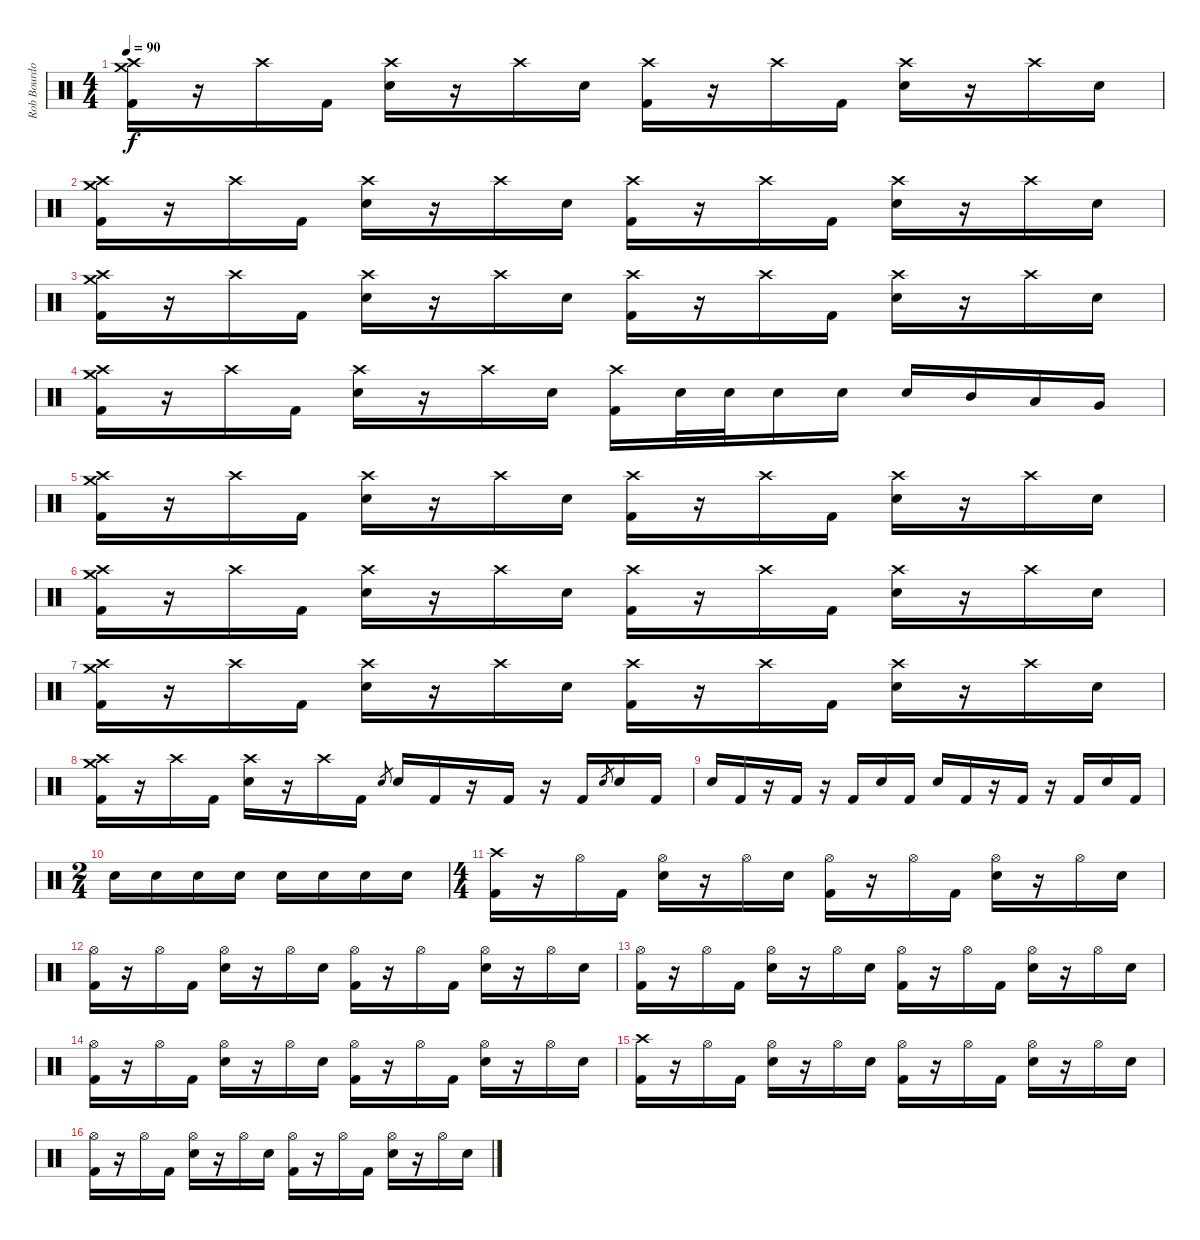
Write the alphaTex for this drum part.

\track ("Rob Bourdon - Drums" "Rob Bourdo") {instrument percussion}
\staff {score}
\articulation defaults
\ts (4 4)
\tempo 90
\clef neutral
\ks c
("Crash high (hit)" "Crash medium (hit)" "Kick (hit) 2").16{dy f} r.16 "Crash high (hit)".16 "Kick (hit) 2".16 ("Crash high (hit)" "Electric Snare (hit)").16 r.16 "Crash high (hit)".16 "Electric Snare (hit)".16 ("Crash high (hit)" "Kick (hit) 2").16 r.16 "Crash high (hit)".16 "Kick (hit) 2".16 ("Crash high (hit)" "Electric Snare (hit)").16 r.16 "Crash high (hit)".16 "Electric Snare (hit)".16 |
("Crash high (hit)" "Crash medium (hit)" "Kick (hit) 2").16 r.16 "Crash high (hit)".16 "Kick (hit) 2".16 ("Crash high (hit)" "Electric Snare (hit)").16 r.16 "Crash high (hit)".16 "Electric Snare (hit)".16 ("Crash high (hit)" "Kick (hit) 2").16 r.16 "Crash high (hit)".16 "Kick (hit) 2".16 ("Crash high (hit)" "Electric Snare (hit)").16 r.16 "Crash high (hit)".16 "Electric Snare (hit)".16 |
("Crash high (hit)" "Crash medium (hit)" "Kick (hit) 2").16 r.16 "Crash high (hit)".16 "Kick (hit) 2".16 ("Crash high (hit)" "Electric Snare (hit)").16 r.16 "Crash high (hit)".16 "Electric Snare (hit)".16 ("Crash high (hit)" "Kick (hit) 2").16 r.16 "Crash high (hit)".16 "Kick (hit) 2".16 ("Crash high (hit)" "Electric Snare (hit)").16 r.16 "Crash high (hit)".16 "Electric Snare (hit)".16 |
("Crash high (hit)" "Crash medium (hit)" "Kick (hit) 2").16 r.16 "Crash high (hit)".16 "Kick (hit) 2".16 ("Crash high (hit)" "Electric Snare (hit)").16 r.16 "Crash high (hit)".16 "Electric Snare (hit)".16 ("Crash high (hit)" "Kick (hit) 2").16 "Electric Snare (hit)".32 "Electric Snare (hit)".32 "Electric Snare (hit)".16 "Electric Snare (hit)".16 "Electric Snare (hit)".16 "Mid Tom (hit)".16 "Low Tom (hit)".16 "Very Low Tom (hit)".16 |
("Crash high (hit)" "Crash medium (hit)" "Kick (hit) 2").16 r.16 "Crash high (hit)".16 "Kick (hit) 2".16 ("Crash high (hit)" "Electric Snare (hit)").16 r.16 "Crash high (hit)".16 "Electric Snare (hit)".16 ("Crash high (hit)" "Kick (hit) 2").16 r.16 "Crash high (hit)".16 "Kick (hit) 2".16 ("Crash high (hit)" "Electric Snare (hit)").16 r.16 "Crash high (hit)".16 "Electric Snare (hit)".16 |
("Crash high (hit)" "Crash medium (hit)" "Kick (hit) 2").16 r.16 "Crash high (hit)".16 "Kick (hit) 2".16 ("Crash high (hit)" "Electric Snare (hit)").16 r.16 "Crash high (hit)".16 "Electric Snare (hit)".16 ("Crash high (hit)" "Kick (hit) 2").16 r.16 "Crash high (hit)".16 "Kick (hit) 2".16 ("Crash high (hit)" "Electric Snare (hit)").16 r.16 "Crash high (hit)".16 "Electric Snare (hit)".16 |
("Crash high (hit)" "Crash medium (hit)" "Kick (hit) 2").16 r.16 "Crash high (hit)".16 "Kick (hit) 2".16 ("Crash high (hit)" "Electric Snare (hit)").16 r.16 "Crash high (hit)".16 "Electric Snare (hit)".16 ("Crash high (hit)" "Kick (hit) 2").16 r.16 "Crash high (hit)".16 "Kick (hit) 2".16 ("Crash high (hit)" "Electric Snare (hit)").16 r.16 "Crash high (hit)".16 "Electric Snare (hit)".16 |
("Crash high (hit)" "Crash medium (hit)" "Kick (hit) 2").16 r.16 "Crash high (hit)".16 "Kick (hit) 2".16 ("Crash high (hit)" "Electric Snare (hit)").16 r.16 "Crash high (hit)".16 "Kick (hit) 2".16 "Electric Snare (hit)".8{gr} "Electric Snare (hit)".16 "Kick (hit) 2".16 r.16 "Kick (hit) 2".16 r.16 "Kick (hit) 2".16 "Electric Snare (hit)".8{gr} "Electric Snare (hit)".16 "Kick (hit) 2".16 |
"Electric Snare (hit)".16 "Kick (hit) 2".16 r.16 "Kick (hit) 2".16 r.16 "Kick (hit) 2".16 "Electric Snare (hit)".16 "Kick (hit) 2".16 "Electric Snare (hit)".16 "Kick (hit) 2".16 r.16 "Kick (hit) 2".16 r.16 "Kick (hit) 2".16 "Electric Snare (hit)".16 "Kick (hit) 2".16 |
\ts (2 4)
"Electric Snare (hit)".16 "Electric Snare (hit)".16 "Electric Snare (hit)".16 "Electric Snare (hit)".16 "Electric Snare (hit)".16 "Electric Snare (hit)".16 "Electric Snare (hit)".16 "Electric Snare (hit)".16 |
\ts (4 4)
("Crash high (hit)" "Kick (hit) 2").16 r.16 "Hi-Hat (open)".16 "Kick (hit) 2".16 ("Hi-Hat (open)" "Electric Snare (hit)").16 r.16 "Hi-Hat (open)".16 "Electric Snare (hit)".16 ("Hi-Hat (open)" "Kick (hit) 2").16 r.16 "Hi-Hat (open)".16 "Kick (hit) 2".16 ("Hi-Hat (open)" "Electric Snare (hit)").16 r.16 "Hi-Hat (open)".16 "Electric Snare (hit)".16 |
("Hi-Hat (open)" "Kick (hit) 2").16 r.16 "Hi-Hat (open)".16 "Kick (hit) 2".16 ("Hi-Hat (open)" "Electric Snare (hit)").16 r.16 "Hi-Hat (open)".16 "Electric Snare (hit)".16 ("Hi-Hat (open)" "Kick (hit) 2").16 r.16 "Hi-Hat (open)".16 "Kick (hit) 2".16 ("Hi-Hat (open)" "Electric Snare (hit)").16 r.16 "Hi-Hat (open)".16 "Electric Snare (hit)".16 |
("Hi-Hat (open)" "Kick (hit) 2").16 r.16 "Hi-Hat (open)".16 "Kick (hit) 2".16 ("Hi-Hat (open)" "Electric Snare (hit)").16 r.16 "Hi-Hat (open)".16 "Electric Snare (hit)".16 ("Hi-Hat (open)" "Kick (hit) 2").16 r.16 "Hi-Hat (open)".16 "Kick (hit) 2".16 ("Hi-Hat (open)" "Electric Snare (hit)").16 r.16 "Hi-Hat (open)".16 "Electric Snare (hit)".16 |
("Hi-Hat (open)" "Kick (hit) 2").16 r.16 "Hi-Hat (open)".16 "Kick (hit) 2".16 ("Hi-Hat (open)" "Electric Snare (hit)").16 r.16 "Hi-Hat (open)".16 "Electric Snare (hit)".16 ("Hi-Hat (open)" "Kick (hit) 2").16 r.16 "Hi-Hat (open)".16 "Kick (hit) 2".16 ("Hi-Hat (open)" "Electric Snare (hit)").16 r.16 "Hi-Hat (open)".16 "Electric Snare (hit)".16 |
("Crash high (hit)" "Kick (hit) 2").16 r.16 "Hi-Hat (open)".16 "Kick (hit) 2".16 ("Hi-Hat (open)" "Electric Snare (hit)").16 r.16 "Hi-Hat (open)".16 "Electric Snare (hit)".16 ("Hi-Hat (open)" "Kick (hit) 2").16 r.16 "Hi-Hat (open)".16 "Kick (hit) 2".16 ("Hi-Hat (open)" "Electric Snare (hit)").16 r.16 "Hi-Hat (open)".16 "Electric Snare (hit)".16 |
("Hi-Hat (open)" "Kick (hit) 2").16 r.16 "Hi-Hat (open)".16 "Kick (hit) 2".16 ("Hi-Hat (open)" "Electric Snare (hit)").16 r.16 "Hi-Hat (open)".16 "Electric Snare (hit)".16 ("Hi-Hat (open)" "Kick (hit) 2").16 r.16 "Hi-Hat (open)".16 "Kick (hit) 2".16 ("Hi-Hat (open)" "Electric Snare (hit)").16 r.16 "Hi-Hat (open)".16 "Electric Snare (hit)".16
